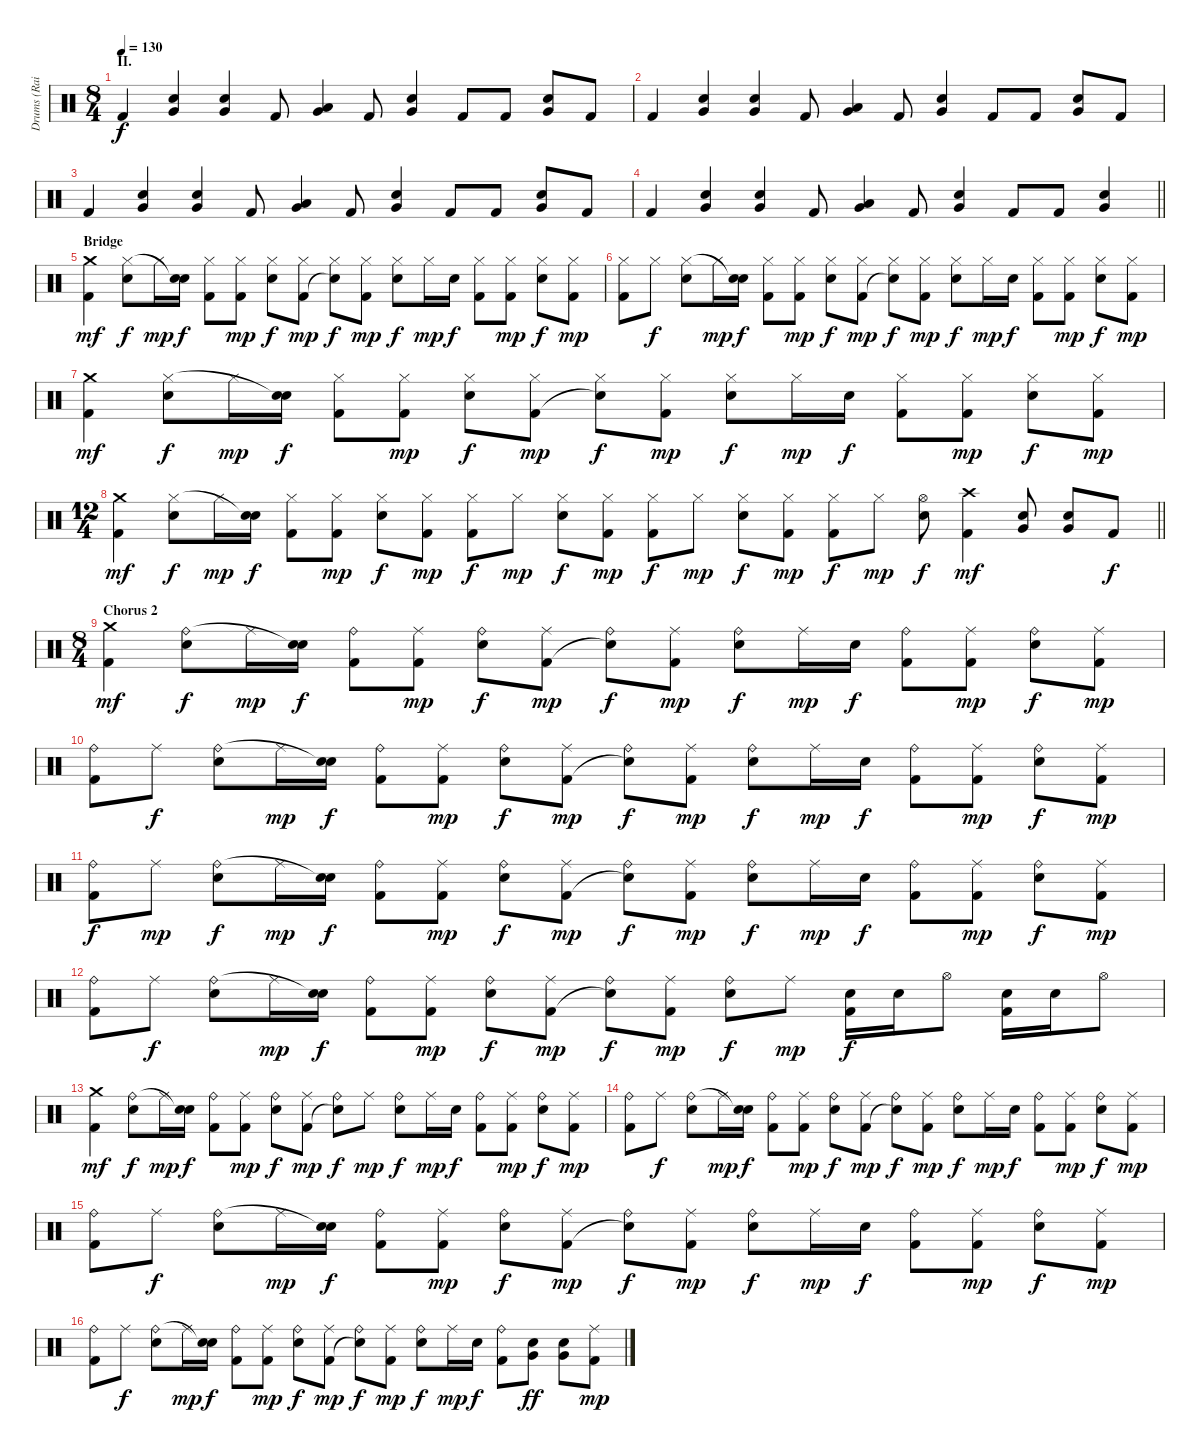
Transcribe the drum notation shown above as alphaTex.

\track ("Drums (Raimund)" "Drums (Rai") {instrument percussion}
\staff {score}
\articulation defaults
\ts (8 4)
\section ("" "II.")
\tempo 130
\clef neutral
\ks c "Kick (hit) 2".4{dy f}
("Snare (hit) 2" "Very Low Tom (hit)").4 ("Snare (hit) 2" "Very Low Tom (hit)").4 "Kick (hit) 2".8 ("Low Tom (hit)" "Very Low Tom (hit)").4 "Kick (hit) 2".8 ("Snare (hit) 2" "Very Low Tom (hit)").4 "Kick (hit) 2".8 "Kick (hit) 2".8 ("Snare (hit) 2" "Very Low Tom (hit)").8 "Kick (hit) 2".8 |
"Kick (hit) 2".4 ("Snare (hit) 2" "Very Low Tom (hit)").4 ("Snare (hit) 2" "Very Low Tom (hit)").4 "Kick (hit) 2".8 ("Low Tom (hit)" "Very Low Tom (hit)").4 "Kick (hit) 2".8 ("Snare (hit) 2" "Very Low Tom (hit)").4 "Kick (hit) 2".8 "Kick (hit) 2".8 ("Snare (hit) 2" "Very Low Tom (hit)").8 "Kick (hit) 2".8 |
"Kick (hit) 2".4 ("Snare (hit) 2" "Very Low Tom (hit)").4 ("Snare (hit) 2" "Very Low Tom (hit)").4 "Kick (hit) 2".8 ("Low Tom (hit)" "Very Low Tom (hit)").4 "Kick (hit) 2".8 ("Snare (hit) 2" "Very Low Tom (hit)").4 "Kick (hit) 2".8 "Kick (hit) 2".8 ("Snare (hit) 2" "Very Low Tom (hit)").8 "Kick (hit) 2".8 |
\barLineRight lightlight "Kick (hit) 2".4
("Snare (hit) 2" "Very Low Tom (hit)").4 ("Snare (hit) 2" "Very Low Tom (hit)").4 "Kick (hit) 2".8 ("Low Tom (hit)" "Very Low Tom (hit)").4 "Kick (hit) 2".8 ("Snare (hit) 2" "Very Low Tom (hit)").4 "Kick (hit) 2".8 "Kick (hit) 2".8 ("Snare (hit) 2" "Very Low Tom (hit)").4 |
\section ("" "Bridge")
("Crash medium (hit)" "Kick (hit) 2").4{dy mf} ("Snare (hit) 2" "Hi-Hat (closed)").8{dy f} "Hi-Hat (closed)".16{dy mp} ("Snare (hit) 2" "Snare (hit)"{t}).16{dy f} ("Hi-Hat (closed)" "Kick (hit) 2").8 ("Hi-Hat (closed)" "Kick (hit) 2").8{dy mp} ("Snare (hit) 2" "Hi-Hat (closed)").8{dy f} ("Hi-Hat (closed)" "Kick (hit) 2").8{dy mp} ("Hi-Hat (closed)" "Snare (hit)"{t}).8{dy f} ("Hi-Hat (closed)" "Kick (hit) 2").8{dy mp} ("Snare (hit) 2" "Hi-Hat (closed)").8{dy f} "Hi-Hat (closed)".16{dy mp} "Snare (hit) 2".16{dy f} ("Hi-Hat (closed)" "Kick (hit) 2").8 ("Hi-Hat (closed)" "Kick (hit) 2").8{dy mp} ("Snare (hit) 2" "Hi-Hat (closed)").8{dy f} ("Hi-Hat (closed)" "Kick (hit) 2").8{dy mp} |
("Hi-Hat (closed)" "Kick (hit) 2").8 "Hi-Hat (closed)".8{dy f} ("Snare (hit) 2" "Hi-Hat (closed)").8 "Hi-Hat (closed)".16{dy mp} ("Snare (hit) 2" "Snare (hit)"{t}).16{dy f} ("Hi-Hat (closed)" "Kick (hit) 2").8 ("Hi-Hat (closed)" "Kick (hit) 2").8{dy mp} ("Snare (hit) 2" "Hi-Hat (closed)").8{dy f} ("Hi-Hat (closed)" "Kick (hit) 2").8{dy mp} ("Hi-Hat (closed)" "Snare (hit)"{t}).8{dy f} ("Hi-Hat (closed)" "Kick (hit) 2").8{dy mp} ("Snare (hit) 2" "Hi-Hat (closed)").8{dy f} "Hi-Hat (closed)".16{dy mp} "Snare (hit) 2".16{dy f} ("Hi-Hat (closed)" "Kick (hit) 2").8 ("Hi-Hat (closed)" "Kick (hit) 2").8{dy mp} ("Snare (hit) 2" "Hi-Hat (closed)").8{dy f} ("Hi-Hat (closed)" "Kick (hit) 2").8{dy mp} |
("Crash medium (hit)" "Kick (hit) 2").4{dy mf} ("Snare (hit) 2" "Hi-Hat (closed)").8{dy f} "Hi-Hat (closed)".16{dy mp} ("Snare (hit) 2" "Snare (hit)"{t}).16{dy f} ("Hi-Hat (closed)" "Kick (hit) 2").8 ("Hi-Hat (closed)" "Kick (hit) 2").8{dy mp} ("Snare (hit) 2" "Hi-Hat (closed)").8{dy f} ("Hi-Hat (closed)" "Kick (hit) 2").8{dy mp} ("Hi-Hat (closed)" "Snare (hit)"{t}).8{dy f} ("Hi-Hat (closed)" "Kick (hit) 2").8{dy mp} ("Snare (hit) 2" "Hi-Hat (closed)").8{dy f} "Hi-Hat (closed)".16{dy mp} "Snare (hit) 2".16{dy f} ("Hi-Hat (closed)" "Kick (hit) 2").8 ("Hi-Hat (closed)" "Kick (hit) 2").8{dy mp} ("Snare (hit) 2" "Hi-Hat (closed)").8{dy f} ("Hi-Hat (closed)" "Kick (hit) 2").8{dy mp} |
\ts (12 4)
\barLineRight lightlight
("Crash medium (hit)" "Kick (hit) 2").4{dy mf} ("Snare (hit) 2" "Hi-Hat (closed)").8{dy f} "Hi-Hat (closed)".16{dy mp} ("Snare (hit) 2" "Snare (hit)"{t}).16{dy f} ("Hi-Hat (closed)" "Kick (hit) 2").8 ("Hi-Hat (closed)" "Kick (hit) 2").8{dy mp} ("Snare (hit) 2" "Hi-Hat (closed)").8{dy f} ("Hi-Hat (closed)" "Kick (hit) 2").8{dy mp} ("Hi-Hat (closed)" "Kick (hit) 2").8{dy f} "Hi-Hat (closed)".8{dy mp} ("Snare (hit) 2" "Hi-Hat (closed)").8{dy f} ("Hi-Hat (closed)" "Kick (hit) 2").8{dy mp} ("Hi-Hat (closed)" "Kick (hit) 2").8{dy f} "Hi-Hat (closed)".8{dy mp} ("Snare (hit) 2" "Hi-Hat (closed)").8{dy f} ("Hi-Hat (closed)" "Kick (hit) 2").8{dy mp} ("Hi-Hat (closed)" "Kick (hit) 2").8{dy f} "Hi-Hat (closed)".8{dy mp} ("Snare (hit) 2" "Hi-Hat (open)").8{dy f} ("Crash high (hit)" "Kick (hit) 2").4{dy mf} ("Snare (hit) 2" "Very Low Tom (hit)").8 ("Snare (hit) 2" "Very Low Tom (hit)").8 "Kick (hit) 2".8{dy f} |
\ts (8 4)
\section ("" "Chorus 2")
("Crash medium (hit)" "Kick (hit) 2").4{dy mf} ("Snare (hit) 2" "Ride (bell)").8{dy f} "Ride (middle)".16{dy mp} ("Snare (hit) 2" "Snare (hit)"{t}).16{dy f} ("Ride (bell)" "Kick (hit) 2").8 ("Ride (middle)" "Kick (hit) 2").8{dy mp} ("Snare (hit) 2" "Ride (bell)").8{dy f} ("Ride (middle)" "Kick (hit) 2").8{dy mp} ("Ride (bell)" "Snare (hit)"{t}).8{dy f} ("Ride (middle)" "Kick (hit) 2").8{dy mp} ("Snare (hit) 2" "Ride (bell)").8{dy f} "Ride (middle)".16{dy mp} "Snare (hit) 2".16{dy f} ("Ride (bell)" "Kick (hit) 2").8 ("Ride (middle)" "Kick (hit) 2").8{dy mp} ("Snare (hit) 2" "Ride (bell)").8{dy f} ("Ride (middle)" "Kick (hit) 2").8{dy mp} |
("Ride (bell)" "Kick (hit) 2").8 "Ride (middle)".8{dy f} ("Snare (hit) 2" "Ride (bell)").8 "Ride (middle)".16{dy mp} ("Snare (hit) 2" "Snare (hit)"{t}).16{dy f} ("Ride (bell)" "Kick (hit) 2").8 ("Ride (middle)" "Kick (hit) 2").8{dy mp} ("Snare (hit) 2" "Ride (bell)").8{dy f} ("Ride (middle)" "Kick (hit) 2").8{dy mp} ("Ride (bell)" "Snare (hit)"{t}).8{dy f} ("Ride (middle)" "Kick (hit) 2").8{dy mp} ("Snare (hit) 2" "Ride (bell)").8{dy f} "Ride (middle)".16{dy mp} "Snare (hit) 2".16{dy f} ("Ride (bell)" "Kick (hit) 2").8 ("Ride (middle)" "Kick (hit) 2").8{dy mp} ("Snare (hit) 2" "Ride (bell)").8{dy f} ("Ride (middle)" "Kick (hit) 2").8{dy mp} |
("Ride (bell)" "Kick (hit) 2").8{dy f} "Ride (middle)".8{dy mp} ("Snare (hit) 2" "Ride (bell)").8{dy f} "Ride (middle)".16{dy mp} ("Snare (hit) 2" "Snare (hit)"{t}).16{dy f} ("Ride (bell)" "Kick (hit) 2").8 ("Ride (middle)" "Kick (hit) 2").8{dy mp} ("Snare (hit) 2" "Ride (bell)").8{dy f} ("Ride (middle)" "Kick (hit) 2").8{dy mp} ("Ride (bell)" "Snare (hit)"{t}).8{dy f} ("Ride (middle)" "Kick (hit) 2").8{dy mp} ("Snare (hit) 2" "Ride (bell)").8{dy f} "Ride (middle)".16{dy mp} "Snare (hit) 2".16{dy f} ("Ride (bell)" "Kick (hit) 2").8 ("Ride (middle)" "Kick (hit) 2").8{dy mp} ("Snare (hit) 2" "Ride (bell)").8{dy f} ("Ride (middle)" "Kick (hit) 2").8{dy mp} |
("Ride (bell)" "Kick (hit) 2").8 "Ride (middle)".8{dy f} ("Snare (hit) 2" "Ride (bell)").8 "Ride (middle)".16{dy mp} ("Snare (hit) 2" "Snare (hit)"{t}).16{dy f} ("Ride (bell)" "Kick (hit) 2").8 ("Ride (middle)" "Kick (hit) 2").8{dy mp} ("Snare (hit) 2" "Ride (bell)").8{dy f} ("Ride (middle)" "Kick (hit) 2").8{dy mp} ("Ride (bell)" "Snare (hit)"{t}).8{dy f} ("Ride (middle)" "Kick (hit) 2").8{dy mp} ("Snare (hit) 2" "Ride (bell)").8{dy f} "Ride (middle)".8{dy mp} ("Snare (hit) 2" "Kick (hit) 2").16{dy f} "Snare (hit) 2".16 "Hi-Hat (open)".8 ("Snare (hit) 2" "Kick (hit) 2").16 "Snare (hit) 2".16 "Hi-Hat (open)".8 |
("Crash medium (hit)" "Kick (hit) 2").4{dy mf} ("Snare (hit) 2" "Ride (bell)").8{dy f} "Ride (middle)".16{dy mp} ("Snare (hit) 2" "Snare (hit)"{t}).16{dy f} ("Ride (bell)" "Kick (hit) 2").8 ("Ride (middle)" "Kick (hit) 2").8{dy mp} ("Snare (hit) 2" "Ride (bell)").8{dy f} ("Ride (middle)" "Kick (hit) 2").8{dy mp} ("Ride (bell)" "Snare (hit)"{t}).8{dy f} "Ride (middle)".8{dy mp} ("Snare (hit) 2" "Ride (bell)").8{dy f} "Ride (middle)".16{dy mp} "Snare (hit) 2".16{dy f} ("Ride (bell)" "Kick (hit) 2").8 ("Ride (middle)" "Kick (hit) 2").8{dy mp} ("Snare (hit) 2" "Ride (bell)").8{dy f} ("Ride (middle)" "Kick (hit) 2").8{dy mp} |
("Ride (bell)" "Kick (hit) 2").8 "Ride (middle)".8{dy f} ("Snare (hit) 2" "Ride (bell)").8 "Ride (middle)".16{dy mp} ("Snare (hit) 2" "Snare (hit)"{t}).16{dy f} ("Ride (bell)" "Kick (hit) 2").8 ("Ride (middle)" "Kick (hit) 2").8{dy mp} ("Snare (hit) 2" "Ride (bell)").8{dy f} ("Ride (middle)" "Kick (hit) 2").8{dy mp} ("Ride (bell)" "Snare (hit)"{t}).8{dy f} ("Ride (middle)" "Kick (hit) 2").8{dy mp} ("Snare (hit) 2" "Ride (bell)").8{dy f} "Ride (middle)".16{dy mp} "Snare (hit) 2".16{dy f} ("Ride (bell)" "Kick (hit) 2").8 ("Ride (middle)" "Kick (hit) 2").8{dy mp} ("Snare (hit) 2" "Ride (bell)").8{dy f} ("Ride (middle)" "Kick (hit) 2").8{dy mp} |
("Ride (bell)" "Kick (hit) 2").8 "Ride (middle)".8{dy f} ("Snare (hit) 2" "Ride (bell)").8 "Ride (middle)".16{dy mp} ("Snare (hit) 2" "Snare (hit)"{t}).16{dy f} ("Ride (bell)" "Kick (hit) 2").8 ("Ride (middle)" "Kick (hit) 2").8{dy mp} ("Snare (hit) 2" "Ride (bell)").8{dy f} ("Ride (middle)" "Kick (hit) 2").8{dy mp} ("Ride (bell)" "Snare (hit)"{t}).8{dy f} ("Ride (middle)" "Kick (hit) 2").8{dy mp} ("Snare (hit) 2" "Ride (bell)").8{dy f} "Ride (middle)".16{dy mp} "Snare (hit) 2".16{dy f} ("Ride (bell)" "Kick (hit) 2").8 ("Ride (middle)" "Kick (hit) 2").8{dy mp} ("Snare (hit) 2" "Ride (bell)").8{dy f} ("Ride (middle)" "Kick (hit) 2").8{dy mp} |
("Ride (bell)" "Kick (hit) 2").8 "Ride (middle)".8{dy f} ("Snare (hit) 2" "Ride (bell)").8 "Ride (middle)".16{dy mp} ("Snare (hit) 2" "Snare (hit)"{t}).16{dy f} ("Ride (bell)" "Kick (hit) 2").8 ("Ride (middle)" "Kick (hit) 2").8{dy mp} ("Snare (hit) 2" "Ride (bell)").8{dy f} ("Ride (middle)" "Kick (hit) 2").8{dy mp} ("Ride (bell)" "Snare (hit)"{t}).8{dy f} ("Ride (middle)" "Kick (hit) 2").8{dy mp} ("Snare (hit) 2" "Ride (bell)").8{dy f} "Ride (middle)".16{dy mp} "Snare (hit) 2".16{dy f} ("Ride (bell)" "Kick (hit) 2").8 ("Snare (hit) 2" "Very Low Tom (hit)").8{dy ff} ("Snare (hit) 2" "Very Low Tom (hit)").8 ("Ride (middle)" "Kick (hit) 2").8{dy mp}
